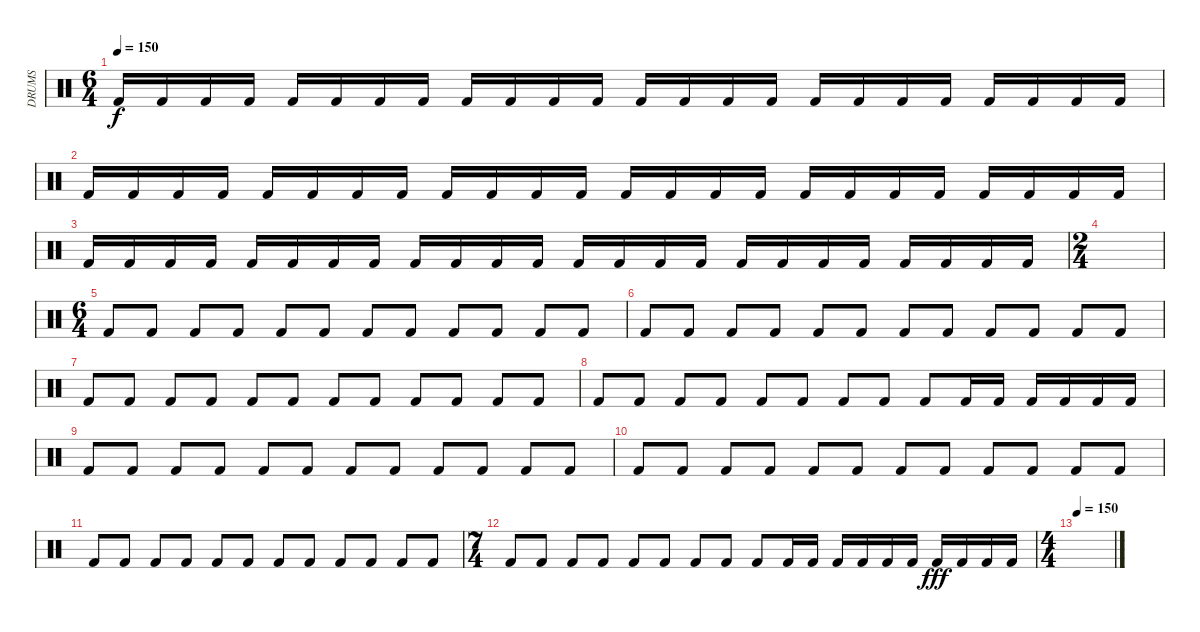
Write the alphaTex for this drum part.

\track ("DRUMS " "DRUMS ") {instrument percussion}
\staff {score}
\articulation defaults
\ts (6 4)
\tempo 150
\clef neutral
\ks c "Kick (hit) 2".16{dy f} "Kick (hit) 2".16 "Kick (hit) 2".16 "Kick (hit) 2".16 "Kick (hit) 2".16 "Kick (hit) 2".16 "Kick (hit) 2".16 "Kick (hit) 2".16 "Kick (hit) 2".16 "Kick (hit) 2".16 "Kick (hit) 2".16 "Kick (hit) 2".16 "Kick (hit) 2".16 "Kick (hit) 2".16 "Kick (hit) 2".16 "Kick (hit) 2".16 "Kick (hit) 2".16 "Kick (hit) 2".16 "Kick (hit) 2".16 "Kick (hit) 2".16 "Kick (hit) 2".16 "Kick (hit) 2".16 "Kick (hit) 2".16 "Kick (hit) 2".16
|
"Kick (hit) 2".16 "Kick (hit) 2".16 "Kick (hit) 2".16 "Kick (hit) 2".16 "Kick (hit) 2".16 "Kick (hit) 2".16 "Kick (hit) 2".16 "Kick (hit) 2".16 "Kick (hit) 2".16 "Kick (hit) 2".16 "Kick (hit) 2".16 "Kick (hit) 2".16 "Kick (hit) 2".16 "Kick (hit) 2".16 "Kick (hit) 2".16 "Kick (hit) 2".16 "Kick (hit) 2".16 "Kick (hit) 2".16 "Kick (hit) 2".16 "Kick (hit) 2".16 "Kick (hit) 2".16 "Kick (hit) 2".16 "Kick (hit) 2".16 "Kick (hit) 2".16 |
"Kick (hit) 2".16 "Kick (hit) 2".16 "Kick (hit) 2".16 "Kick (hit) 2".16 "Kick (hit) 2".16 "Kick (hit) 2".16 "Kick (hit) 2".16 "Kick (hit) 2".16 "Kick (hit) 2".16 "Kick (hit) 2".16 "Kick (hit) 2".16 "Kick (hit) 2".16 "Kick (hit) 2".16 "Kick (hit) 2".16 "Kick (hit) 2".16 "Kick (hit) 2".16 "Kick (hit) 2".16 "Kick (hit) 2".16 "Kick (hit) 2".16 "Kick (hit) 2".16 "Kick (hit) 2".16 "Kick (hit) 2".16 "Kick (hit) 2".16 "Kick (hit) 2".16 |
\ts (2 4)
|
\ts (6 4)
"Kick (hit) 2".8 "Kick (hit) 2".8 "Kick (hit) 2".8 "Kick (hit) 2".8 "Kick (hit) 2".8 "Kick (hit) 2".8 "Kick (hit) 2".8 "Kick (hit) 2".8 "Kick (hit) 2".8 "Kick (hit) 2".8 "Kick (hit) 2".8 "Kick (hit) 2".8 |
"Kick (hit) 2".8 "Kick (hit) 2".8 "Kick (hit) 2".8 "Kick (hit) 2".8 "Kick (hit) 2".8 "Kick (hit) 2".8 "Kick (hit) 2".8 "Kick (hit) 2".8 "Kick (hit) 2".8 "Kick (hit) 2".8 "Kick (hit) 2".8 "Kick (hit) 2".8 |
"Kick (hit) 2".8 "Kick (hit) 2".8 "Kick (hit) 2".8 "Kick (hit) 2".8 "Kick (hit) 2".8 "Kick (hit) 2".8 "Kick (hit) 2".8 "Kick (hit) 2".8 "Kick (hit) 2".8 "Kick (hit) 2".8 "Kick (hit) 2".8 "Kick (hit) 2".8 |
"Kick (hit) 2".8 "Kick (hit) 2".8 "Kick (hit) 2".8 "Kick (hit) 2".8 "Kick (hit) 2".8 "Kick (hit) 2".8 "Kick (hit) 2".8 "Kick (hit) 2".8 "Kick (hit) 2".8 "Kick (hit) 2".16 "Kick (hit) 2".16 "Kick (hit) 2".16 "Kick (hit) 2".16 "Kick (hit) 2".16 "Kick (hit) 2".16 |
"Kick (hit) 2".8 "Kick (hit) 2".8 "Kick (hit) 2".8 "Kick (hit) 2".8 "Kick (hit) 2".8 "Kick (hit) 2".8 "Kick (hit) 2".8 "Kick (hit) 2".8 "Kick (hit) 2".8 "Kick (hit) 2".8 "Kick (hit) 2".8 "Kick (hit) 2".8 |
"Kick (hit) 2".8 "Kick (hit) 2".8 "Kick (hit) 2".8 "Kick (hit) 2".8 "Kick (hit) 2".8 "Kick (hit) 2".8 "Kick (hit) 2".8 "Kick (hit) 2".8 "Kick (hit) 2".8 "Kick (hit) 2".8 "Kick (hit) 2".8 "Kick (hit) 2".8 |
"Kick (hit) 2".8 "Kick (hit) 2".8 "Kick (hit) 2".8 "Kick (hit) 2".8 "Kick (hit) 2".8 "Kick (hit) 2".8 "Kick (hit) 2".8 "Kick (hit) 2".8 "Kick (hit) 2".8 "Kick (hit) 2".8 "Kick (hit) 2".8 "Kick (hit) 2".8 |
\ts (7 4)
"Kick (hit) 2".8 "Kick (hit) 2".8 "Kick (hit) 2".8 "Kick (hit) 2".8 "Kick (hit) 2".8 "Kick (hit) 2".8 "Kick (hit) 2".8 "Kick (hit) 2".8 "Kick (hit) 2".8 "Kick (hit) 2".16 "Kick (hit) 2".16 "Kick (hit) 2".16 "Kick (hit) 2".16 "Kick (hit) 2".16 "Kick (hit) 2".16 "Kick (hit) 2".16{dy fff} "Kick (hit) 2".16 "Kick (hit) 2".16 "Kick (hit) 2".16 |
\ts (4 4)
\tempo 150
